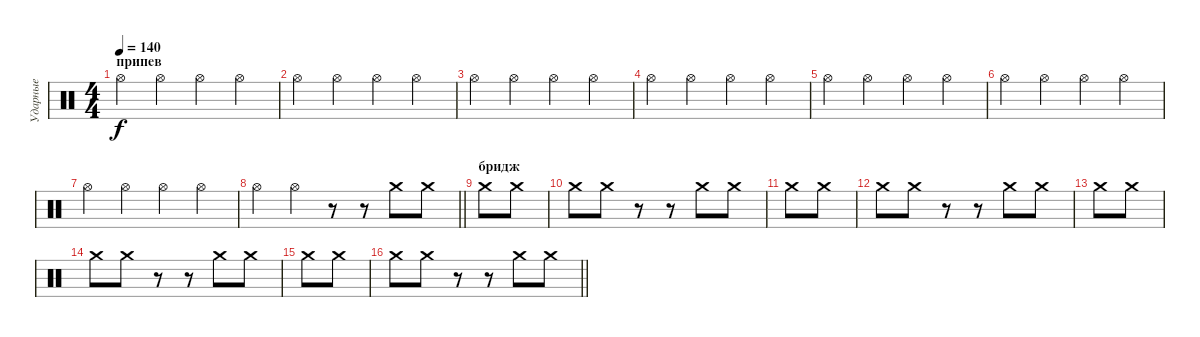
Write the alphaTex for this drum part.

\track ("Ударные" "Ударные") {instrument percussion}
\staff {score}
\articulation defaults
\ts (4 4)
\section ("" "припев")
\tempo 140
\clef neutral
\ks c "Hi-Hat (open)".4{dy f} "Hi-Hat (open)".4 "Hi-Hat (open)".4 "Hi-Hat (open)".4
|
"Hi-Hat (open)".4 "Hi-Hat (open)".4 "Hi-Hat (open)".4 "Hi-Hat (open)".4 |
"Hi-Hat (open)".4 "Hi-Hat (open)".4 "Hi-Hat (open)".4 "Hi-Hat (open)".4 |
"Hi-Hat (open)".4 "Hi-Hat (open)".4 "Hi-Hat (open)".4 "Hi-Hat (open)".4 |
"Hi-Hat (open)".4 "Hi-Hat (open)".4 "Hi-Hat (open)".4 "Hi-Hat (open)".4 |
"Hi-Hat (open)".4 "Hi-Hat (open)".4 "Hi-Hat (open)".4 "Hi-Hat (open)".4 |
"Hi-Hat (open)".4 "Hi-Hat (open)".4 "Hi-Hat (open)".4 "Hi-Hat (open)".4 |
\barLineRight lightlight "Hi-Hat (open)".4 "Hi-Hat (open)".4
r.8 r.8 "Crash medium (hit)".8 "Crash medium (hit)".8 |
\section ("" "бридж")
"Crash medium (hit)".8 "Crash medium (hit)".8 |
"Crash medium (hit)".8 "Crash medium (hit)".8 r.8 r.8 "Crash medium (hit)".8 "Crash medium (hit)".8 |
"Crash medium (hit)".8 "Crash medium (hit)".8 |
"Crash medium (hit)".8 "Crash medium (hit)".8 r.8 r.8 "Crash medium (hit)".8 "Crash medium (hit)".8 |
"Crash medium (hit)".8 "Crash medium (hit)".8 |
"Crash medium (hit)".8 "Crash medium (hit)".8 r.8 r.8 "Crash medium (hit)".8 "Crash medium (hit)".8 |
"Crash medium (hit)".8 "Crash medium (hit)".8 |
\barLineRight lightlight "Crash medium (hit)".8 "Crash medium (hit)".8
r.8 r.8 "Crash medium (hit)".8 "Crash medium (hit)".8
